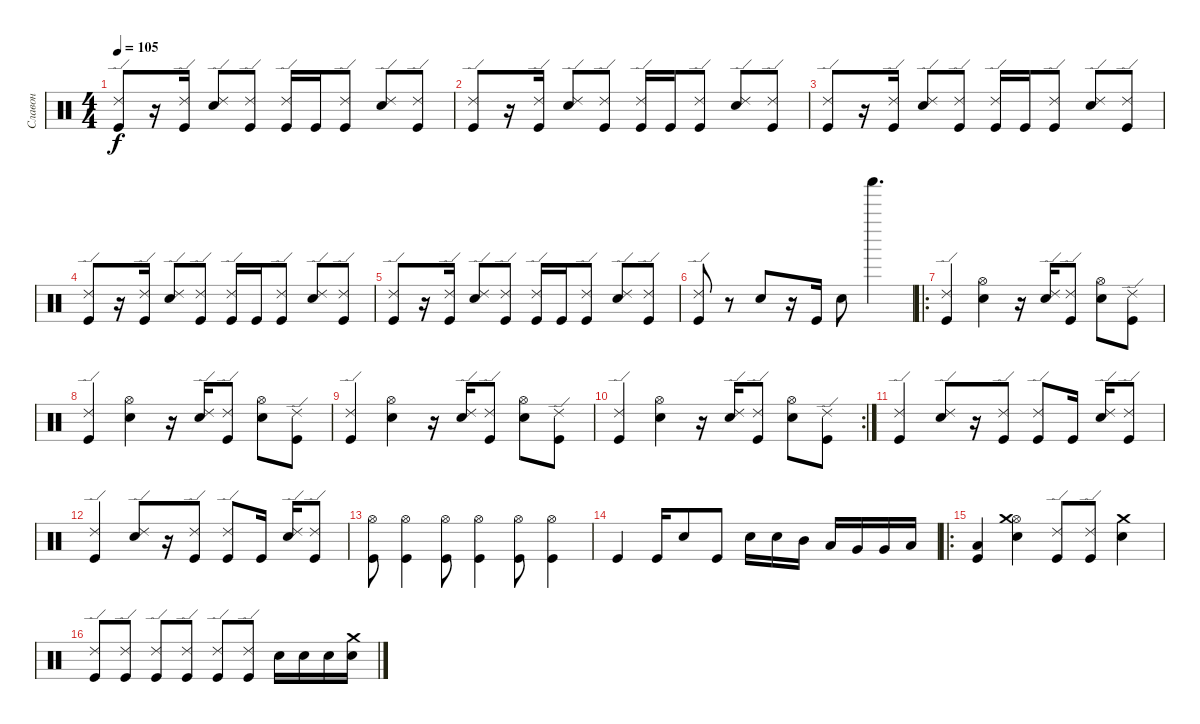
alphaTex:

\track ("Славон" "Славон") {instrument percussion}
\staff {score}
\articulation defaults
\ts (4 4)
\tempo 105
\clef neutral
\ks c
("Ride (edge) 2" "Kick (hit)").8{dy f} r.16 ("Ride (edge) 2" "Kick (hit)").16 ("Ride (edge) 2" "Electric Snare (hit)").8 ("Ride (edge) 2" "Kick (hit)").8 ("Ride (edge) 2" "Kick (hit)").16 "Kick (hit)".16 ("Ride (edge) 2" "Kick (hit)").8 ("Ride (edge) 2" "Electric Snare (hit)").8 ("Ride (edge) 2" "Kick (hit)").8 |
("Ride (edge) 2" "Kick (hit)").8 r.16 ("Ride (edge) 2" "Kick (hit)").16 ("Ride (edge) 2" "Electric Snare (hit)").8 ("Ride (edge) 2" "Kick (hit)").8 ("Ride (edge) 2" "Kick (hit)").16 "Kick (hit)".16 ("Ride (edge) 2" "Kick (hit)").8 ("Ride (edge) 2" "Electric Snare (hit)").8 ("Ride (edge) 2" "Kick (hit)").8 |
("Ride (edge) 2" "Kick (hit)").8 r.16 ("Ride (edge) 2" "Kick (hit)").16 ("Ride (edge) 2" "Electric Snare (hit)").8 ("Ride (edge) 2" "Kick (hit)").8 ("Ride (edge) 2" "Kick (hit)").16 "Kick (hit)".16 ("Ride (edge) 2" "Kick (hit)").8 ("Ride (edge) 2" "Electric Snare (hit)").8 ("Ride (edge) 2" "Kick (hit)").8 |
("Ride (edge) 2" "Kick (hit)").8 r.16 ("Ride (edge) 2" "Kick (hit)").16 ("Ride (edge) 2" "Electric Snare (hit)").8 ("Ride (edge) 2" "Kick (hit)").8 ("Ride (edge) 2" "Kick (hit)").16 "Kick (hit)".16 ("Ride (edge) 2" "Kick (hit)").8 ("Ride (edge) 2" "Electric Snare (hit)").8 ("Ride (edge) 2" "Kick (hit)").8 |
("Ride (edge) 2" "Kick (hit)").8 r.16 ("Ride (edge) 2" "Kick (hit)").16 ("Ride (edge) 2" "Electric Snare (hit)").8 ("Ride (edge) 2" "Kick (hit)").8 ("Ride (edge) 2" "Kick (hit)").16 "Kick (hit)".16 ("Ride (edge) 2" "Kick (hit)").8 ("Ride (edge) 2" "Electric Snare (hit)").8 ("Ride (edge) 2" "Kick (hit)").8 |
("Ride (edge) 2" "Kick (hit)").8 r.8 "Electric Snare (hit)".8 r.16 "Kick (hit)".16 "Electric Snare (hit)".8 "Shaker (hit)".4{d} |
\ro
("Ride (edge) 2" "Kick (hit)").4 ("Hi-Hat (open)" "Electric Snare (hit)").4 r.16 ("Ride (edge) 2" "Electric Snare (hit)").16 ("Ride (edge) 2" "Kick (hit)").8 ("Hi-Hat (open)" "Electric Snare (hit)").8 ("Ride (edge) 2" "Kick (hit)").8 |
("Ride (edge) 2" "Kick (hit)").4 ("Hi-Hat (open)" "Electric Snare (hit)").4 r.16 ("Ride (edge) 2" "Electric Snare (hit)").16 ("Ride (edge) 2" "Kick (hit)").8 ("Hi-Hat (open)" "Electric Snare (hit)").8 ("Ride (edge) 2" "Kick (hit)").8 |
("Ride (edge) 2" "Kick (hit)").4 ("Hi-Hat (open)" "Electric Snare (hit)").4 r.16 ("Ride (edge) 2" "Electric Snare (hit)").16 ("Ride (edge) 2" "Kick (hit)").8 ("Hi-Hat (open)" "Electric Snare (hit)").8 ("Ride (edge) 2" "Kick (hit)").8 |
\rc 2
("Ride (edge) 2" "Kick (hit)").4 ("Hi-Hat (open)" "Electric Snare (hit)").4 r.16 ("Ride (edge) 2" "Electric Snare (hit)").16 ("Ride (edge) 2" "Kick (hit)").8 ("Hi-Hat (open)" "Electric Snare (hit)").8 ("Ride (edge) 2" "Kick (hit)").8 |
("Ride (edge) 2" "Kick (hit)").4 ("Ride (edge) 2" "Electric Snare (hit)").8 r.16 ("Ride (edge) 2" "Kick (hit)").8 ("Ride (edge) 2" "Kick (hit)").8 "Kick (hit)".16 ("Ride (edge) 2" "Electric Snare (hit)").16 ("Ride (edge) 2" "Kick (hit)").8 |
("Ride (edge) 2" "Kick (hit)").4 ("Ride (edge) 2" "Electric Snare (hit)").8 r.16 ("Ride (edge) 2" "Kick (hit)").8 ("Ride (edge) 2" "Kick (hit)").8 "Kick (hit)".16 ("Ride (edge) 2" "Electric Snare (hit)").16 ("Ride (edge) 2" "Kick (hit)").8 |
("Hi-Hat (open)" "Kick (hit)").8 ("Hi-Hat (open)" "Kick (hit)").4 ("Hi-Hat (open)" "Kick (hit)").8 ("Hi-Hat (open)" "Kick (hit)").4 ("Hi-Hat (open)" "Kick (hit)").8 ("Hi-Hat (open)" "Kick (hit)").4 |
"Kick (hit)".4 "Kick (hit)".16 "Electric Snare (hit)".8 "Kick (hit)".8 "Electric Snare (hit)".16 "Electric Snare (hit)".16 "Mid Tom (hit)".16 "Low Tom (hit)".16 "Very Low Tom (hit)".16 "Very Low Tom (hit)".16 "Low Floor Tom (hit)".16 |
\ro
("Low Floor Tom (hit)" "Kick (hit)").4 ("Hi-Hat (open)" "Crash medium (hit)" "Electric Snare (hit)").4 ("Ride (edge) 2" "Kick (hit)").8 ("Ride (edge) 2" "Kick (hit)").8 ("Crash medium (hit)" "Electric Snare (hit)").4 |
("Ride (edge) 2" "Kick (hit)").8 ("Ride (edge) 2" "Kick (hit)").8 ("Ride (edge) 2" "Kick (hit)").8 ("Ride (edge) 2" "Kick (hit)").8 ("Ride (edge) 2" "Kick (hit)").8 ("Ride (edge) 2" "Kick (hit)").8 "Electric Snare (hit)".16 "Electric Snare (hit)".16 "Electric Snare (hit)".16 ("Crash medium (hit)" "Electric Snare (hit)").16
